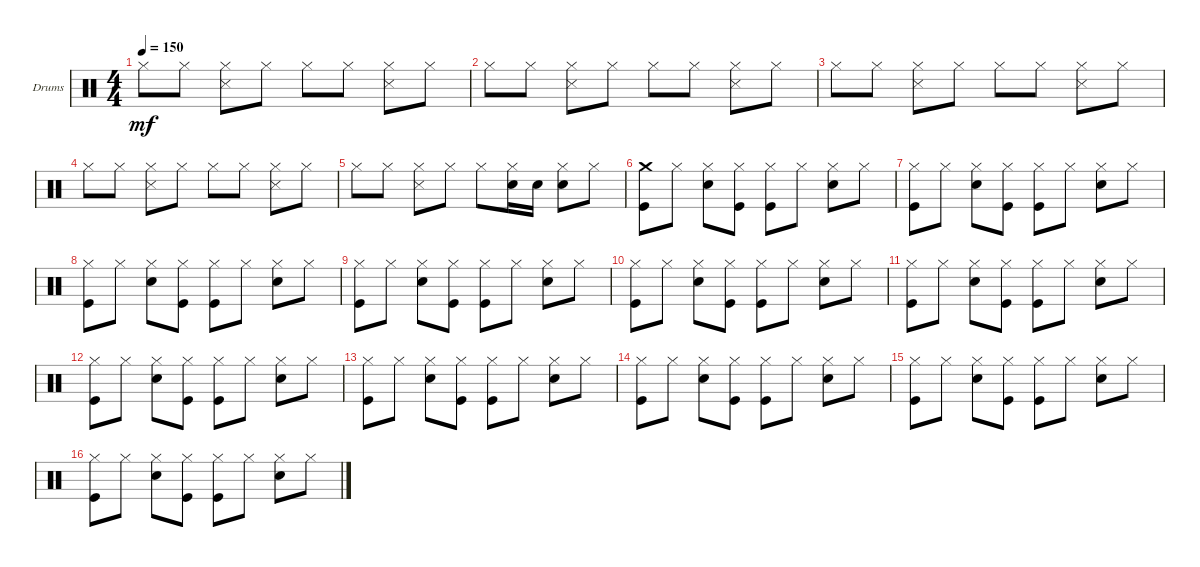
\defaultSystemsLayout 4
\bracketExtendMode groupsimilarinstruments
\firstSystemTrackNameOrientation horizontal
\otherSystemsTrackNameOrientation horizontal
\track ("Drums" "Drums") {instrument percussion}
\staff {score}
\articulation defaults
\ts (4 4)
\tempo 150
\clef neutral
\ks c "Hi-Hat (closed)".8{dy mf} "Hi-Hat (closed)".8
("Hi-Hat (closed)" "Snare (side stick) 3").8 "Hi-Hat (closed)".8 "Hi-Hat (closed)".8 "Hi-Hat (closed)".8 ("Hi-Hat (closed)" "Snare (side stick) 3").8 "Hi-Hat (closed)".8 |
"Hi-Hat (closed)".8 "Hi-Hat (closed)".8 ("Hi-Hat (closed)" "Snare (side stick) 3").8 "Hi-Hat (closed)".8 "Hi-Hat (closed)".8 "Hi-Hat (closed)".8 ("Hi-Hat (closed)" "Snare (side stick) 3").8 "Hi-Hat (closed)".8 |
"Hi-Hat (closed)".8 "Hi-Hat (closed)".8 ("Hi-Hat (closed)" "Snare (side stick) 3").8 "Hi-Hat (closed)".8 "Hi-Hat (closed)".8 "Hi-Hat (closed)".8 ("Hi-Hat (closed)" "Snare (side stick) 3").8 "Hi-Hat (closed)".8 |
"Hi-Hat (closed)".8 "Hi-Hat (closed)".8 ("Hi-Hat (closed)" "Snare (side stick) 3").8 "Hi-Hat (closed)".8 "Hi-Hat (closed)".8 "Hi-Hat (closed)".8 ("Hi-Hat (closed)" "Snare (side stick) 3").8 "Hi-Hat (closed)".8 |
"Hi-Hat (closed)".8 "Hi-Hat (closed)".8 ("Snare (side stick) 3" "Hi-Hat (closed)").8 "Hi-Hat (closed)".8 "Hi-Hat (closed)".8 ("Hi-Hat (closed)" "Snare (hit) 2").16 "Snare (hit) 2".16 ("Snare (hit) 2" "Hi-Hat (closed)").8 "Hi-Hat (closed)".8 |
("Crash medium (hit)" "Kick (hit)").8 "Hi-Hat (closed)".8 ("Snare (hit) 2" "Hi-Hat (closed)").8 ("Kick (hit)" "Hi-Hat (closed)").8 ("Kick (hit)" "Hi-Hat (closed)").8 "Hi-Hat (closed)".8 ("Snare (hit) 2" "Hi-Hat (closed)").8 "Hi-Hat (closed)".8 |
("Kick (hit)" "Hi-Hat (closed)").8 "Hi-Hat (closed)".8 ("Snare (hit) 2" "Hi-Hat (closed)").8 ("Kick (hit)" "Hi-Hat (closed)").8 ("Kick (hit)" "Hi-Hat (closed)").8 "Hi-Hat (closed)".8 ("Snare (hit) 2" "Hi-Hat (closed)").8 "Hi-Hat (closed)".8 |
("Kick (hit)" "Hi-Hat (closed)").8 "Hi-Hat (closed)".8 ("Snare (hit) 2" "Hi-Hat (closed)").8 ("Kick (hit)" "Hi-Hat (closed)").8 ("Kick (hit)" "Hi-Hat (closed)").8 "Hi-Hat (closed)".8 ("Snare (hit) 2" "Hi-Hat (closed)").8 "Hi-Hat (closed)".8 |
("Kick (hit)" "Hi-Hat (closed)").8 "Hi-Hat (closed)".8 ("Snare (hit) 2" "Hi-Hat (closed)").8 ("Kick (hit)" "Hi-Hat (closed)").8 ("Kick (hit)" "Hi-Hat (closed)").8 "Hi-Hat (closed)".8 ("Snare (hit) 2" "Hi-Hat (closed)").8 "Hi-Hat (closed)".8 |
("Kick (hit)" "Hi-Hat (closed)").8 "Hi-Hat (closed)".8 ("Snare (hit) 2" "Hi-Hat (closed)").8 ("Kick (hit)" "Hi-Hat (closed)").8 ("Kick (hit)" "Hi-Hat (closed)").8 "Hi-Hat (closed)".8 ("Snare (hit) 2" "Hi-Hat (closed)").8 "Hi-Hat (closed)".8 |
("Kick (hit)" "Hi-Hat (closed)").8 "Hi-Hat (closed)".8 ("Snare (hit) 2" "Hi-Hat (closed)").8 ("Kick (hit)" "Hi-Hat (closed)").8 ("Kick (hit)" "Hi-Hat (closed)").8 "Hi-Hat (closed)".8 ("Snare (hit) 2" "Hi-Hat (closed)").8 "Hi-Hat (closed)".8 |
("Kick (hit)" "Hi-Hat (closed)").8 "Hi-Hat (closed)".8 ("Snare (hit) 2" "Hi-Hat (closed)").8 ("Kick (hit)" "Hi-Hat (closed)").8 ("Kick (hit)" "Hi-Hat (closed)").8 "Hi-Hat (closed)".8 ("Snare (hit) 2" "Hi-Hat (closed)").8 "Hi-Hat (closed)".8 |
("Kick (hit)" "Hi-Hat (closed)").8 "Hi-Hat (closed)".8 ("Snare (hit) 2" "Hi-Hat (closed)").8 ("Kick (hit)" "Hi-Hat (closed)").8 ("Kick (hit)" "Hi-Hat (closed)").8 "Hi-Hat (closed)".8 ("Snare (hit) 2" "Hi-Hat (closed)").8 "Hi-Hat (closed)".8 |
("Kick (hit)" "Hi-Hat (closed)").8 "Hi-Hat (closed)".8 ("Snare (hit) 2" "Hi-Hat (closed)").8 ("Kick (hit)" "Hi-Hat (closed)").8 ("Kick (hit)" "Hi-Hat (closed)").8 "Hi-Hat (closed)".8 ("Snare (hit) 2" "Hi-Hat (closed)").8 "Hi-Hat (closed)".8 |
("Kick (hit)" "Hi-Hat (closed)").8 "Hi-Hat (closed)".8 ("Snare (hit) 2" "Hi-Hat (closed)").8 ("Kick (hit)" "Hi-Hat (closed)").8 ("Kick (hit)" "Hi-Hat (closed)").8 "Hi-Hat (closed)".8 ("Snare (hit) 2" "Hi-Hat (closed)").8 "Hi-Hat (closed)".8 |
("Kick (hit)" "Hi-Hat (closed)").8 "Hi-Hat (closed)".8 ("Snare (hit) 2" "Hi-Hat (closed)").8 ("Kick (hit)" "Hi-Hat (closed)").8 ("Kick (hit)" "Hi-Hat (closed)").8 "Hi-Hat (closed)".8 ("Snare (hit) 2" "Hi-Hat (closed)").8 "Hi-Hat (closed)".8
